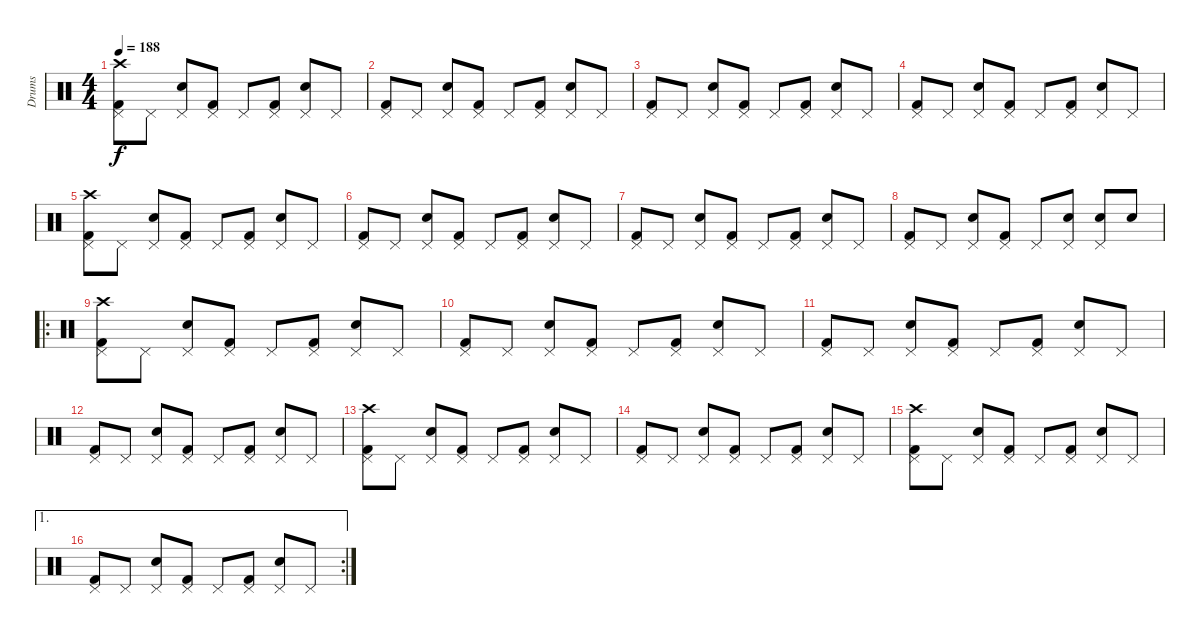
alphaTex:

\track ("Drums" "Drums") {instrument percussion}
\staff {score}
\articulation defaults
\ts (4 4)
\tempo 188
\clef neutral
\ks c
("Kick (hit) 2" "Pedal Hi-Hat (hit)" "Crash high (hit)").8{dy f} "Pedal Hi-Hat (hit)".8 ("Snare (hit) 2" "Pedal Hi-Hat (hit)").8 ("Kick (hit) 2" "Pedal Hi-Hat (hit)").8 "Pedal Hi-Hat (hit)".8 ("Kick (hit) 2" "Pedal Hi-Hat (hit)").8 ("Snare (hit) 2" "Pedal Hi-Hat (hit)").8 "Pedal Hi-Hat (hit)".8 |
("Kick (hit) 2" "Pedal Hi-Hat (hit)").8 "Pedal Hi-Hat (hit)".8 ("Snare (hit) 2" "Pedal Hi-Hat (hit)").8 ("Kick (hit) 2" "Pedal Hi-Hat (hit)").8 "Pedal Hi-Hat (hit)".8 ("Kick (hit) 2" "Pedal Hi-Hat (hit)").8 ("Snare (hit) 2" "Pedal Hi-Hat (hit)").8 "Pedal Hi-Hat (hit)".8 |
("Kick (hit) 2" "Pedal Hi-Hat (hit)").8 "Pedal Hi-Hat (hit)".8 ("Snare (hit) 2" "Pedal Hi-Hat (hit)").8 ("Kick (hit) 2" "Pedal Hi-Hat (hit)").8 "Pedal Hi-Hat (hit)".8 ("Kick (hit) 2" "Pedal Hi-Hat (hit)").8 ("Snare (hit) 2" "Pedal Hi-Hat (hit)").8 "Pedal Hi-Hat (hit)".8 |
("Kick (hit) 2" "Pedal Hi-Hat (hit)").8 "Pedal Hi-Hat (hit)".8 ("Snare (hit) 2" "Pedal Hi-Hat (hit)").8 ("Kick (hit) 2" "Pedal Hi-Hat (hit)").8 "Pedal Hi-Hat (hit)".8 ("Kick (hit) 2" "Pedal Hi-Hat (hit)").8 ("Snare (hit) 2" "Pedal Hi-Hat (hit)").8 "Pedal Hi-Hat (hit)".8 |
("Kick (hit) 2" "Pedal Hi-Hat (hit)" "Crash high (hit)").8 "Pedal Hi-Hat (hit)".8 ("Snare (hit) 2" "Pedal Hi-Hat (hit)").8 ("Kick (hit) 2" "Pedal Hi-Hat (hit)").8 "Pedal Hi-Hat (hit)".8 ("Kick (hit) 2" "Pedal Hi-Hat (hit)").8 ("Snare (hit) 2" "Pedal Hi-Hat (hit)").8 "Pedal Hi-Hat (hit)".8 |
("Kick (hit) 2" "Pedal Hi-Hat (hit)").8 "Pedal Hi-Hat (hit)".8 ("Snare (hit) 2" "Pedal Hi-Hat (hit)").8 ("Kick (hit) 2" "Pedal Hi-Hat (hit)").8 "Pedal Hi-Hat (hit)".8 ("Kick (hit) 2" "Pedal Hi-Hat (hit)").8 ("Snare (hit) 2" "Pedal Hi-Hat (hit)").8 "Pedal Hi-Hat (hit)".8 |
("Kick (hit) 2" "Pedal Hi-Hat (hit)").8 "Pedal Hi-Hat (hit)".8 ("Snare (hit) 2" "Pedal Hi-Hat (hit)").8 ("Kick (hit) 2" "Pedal Hi-Hat (hit)").8 "Pedal Hi-Hat (hit)".8 ("Kick (hit) 2" "Pedal Hi-Hat (hit)").8 ("Snare (hit) 2" "Pedal Hi-Hat (hit)").8 "Pedal Hi-Hat (hit)".8 |
("Kick (hit) 2" "Pedal Hi-Hat (hit)").8 "Pedal Hi-Hat (hit)".8 ("Snare (hit) 2" "Pedal Hi-Hat (hit)").8 ("Kick (hit) 2" "Pedal Hi-Hat (hit)").8 "Pedal Hi-Hat (hit)".8 ("Snare (hit) 2" "Pedal Hi-Hat (hit)").8 ("Snare (hit) 2" "Pedal Hi-Hat (hit)").8 "Snare (hit) 2".8 |
\ro
("Kick (hit) 2" "Pedal Hi-Hat (hit)" "Crash high (hit)").8 "Pedal Hi-Hat (hit)".8 ("Snare (hit) 2" "Pedal Hi-Hat (hit)").8 ("Kick (hit) 2" "Pedal Hi-Hat (hit)").8 "Pedal Hi-Hat (hit)".8 ("Kick (hit) 2" "Pedal Hi-Hat (hit)").8 ("Snare (hit) 2" "Pedal Hi-Hat (hit)").8 "Pedal Hi-Hat (hit)".8 |
("Kick (hit) 2" "Pedal Hi-Hat (hit)").8 "Pedal Hi-Hat (hit)".8 ("Snare (hit) 2" "Pedal Hi-Hat (hit)").8 ("Kick (hit) 2" "Pedal Hi-Hat (hit)").8 "Pedal Hi-Hat (hit)".8 ("Kick (hit) 2" "Pedal Hi-Hat (hit)").8 ("Snare (hit) 2" "Pedal Hi-Hat (hit)").8 "Pedal Hi-Hat (hit)".8 |
("Kick (hit) 2" "Pedal Hi-Hat (hit)").8 "Pedal Hi-Hat (hit)".8 ("Snare (hit) 2" "Pedal Hi-Hat (hit)").8 ("Kick (hit) 2" "Pedal Hi-Hat (hit)").8 "Pedal Hi-Hat (hit)".8 ("Kick (hit) 2" "Pedal Hi-Hat (hit)").8 ("Snare (hit) 2" "Pedal Hi-Hat (hit)").8 "Pedal Hi-Hat (hit)".8 |
("Kick (hit) 2" "Pedal Hi-Hat (hit)").8 "Pedal Hi-Hat (hit)".8 ("Snare (hit) 2" "Pedal Hi-Hat (hit)").8 ("Kick (hit) 2" "Pedal Hi-Hat (hit)").8 "Pedal Hi-Hat (hit)".8 ("Kick (hit) 2" "Pedal Hi-Hat (hit)").8 ("Snare (hit) 2" "Pedal Hi-Hat (hit)").8 "Pedal Hi-Hat (hit)".8 |
("Kick (hit) 2" "Pedal Hi-Hat (hit)" "Crash high (hit)").8 "Pedal Hi-Hat (hit)".8 ("Snare (hit) 2" "Pedal Hi-Hat (hit)").8 ("Kick (hit) 2" "Pedal Hi-Hat (hit)").8 "Pedal Hi-Hat (hit)".8 ("Kick (hit) 2" "Pedal Hi-Hat (hit)").8 ("Snare (hit) 2" "Pedal Hi-Hat (hit)").8 "Pedal Hi-Hat (hit)".8 |
("Kick (hit) 2" "Pedal Hi-Hat (hit)").8 "Pedal Hi-Hat (hit)".8 ("Snare (hit) 2" "Pedal Hi-Hat (hit)").8 ("Kick (hit) 2" "Pedal Hi-Hat (hit)").8 "Pedal Hi-Hat (hit)".8 ("Kick (hit) 2" "Pedal Hi-Hat (hit)").8 ("Snare (hit) 2" "Pedal Hi-Hat (hit)").8 "Pedal Hi-Hat (hit)".8 |
("Kick (hit) 2" "Pedal Hi-Hat (hit)" "Crash high (hit)").8 "Pedal Hi-Hat (hit)".8 ("Snare (hit) 2" "Pedal Hi-Hat (hit)").8 ("Kick (hit) 2" "Pedal Hi-Hat (hit)").8 "Pedal Hi-Hat (hit)".8 ("Kick (hit) 2" "Pedal Hi-Hat (hit)").8 ("Snare (hit) 2" "Pedal Hi-Hat (hit)").8 "Pedal Hi-Hat (hit)".8 |
\ae 1
\rc 2
("Kick (hit) 2" "Pedal Hi-Hat (hit)").8 "Pedal Hi-Hat (hit)".8 ("Snare (hit) 2" "Pedal Hi-Hat (hit)").8 ("Kick (hit) 2" "Pedal Hi-Hat (hit)").8 "Pedal Hi-Hat (hit)".8 ("Kick (hit) 2" "Pedal Hi-Hat (hit)").8 ("Snare (hit) 2" "Pedal Hi-Hat (hit)").8 "Pedal Hi-Hat (hit)".8
